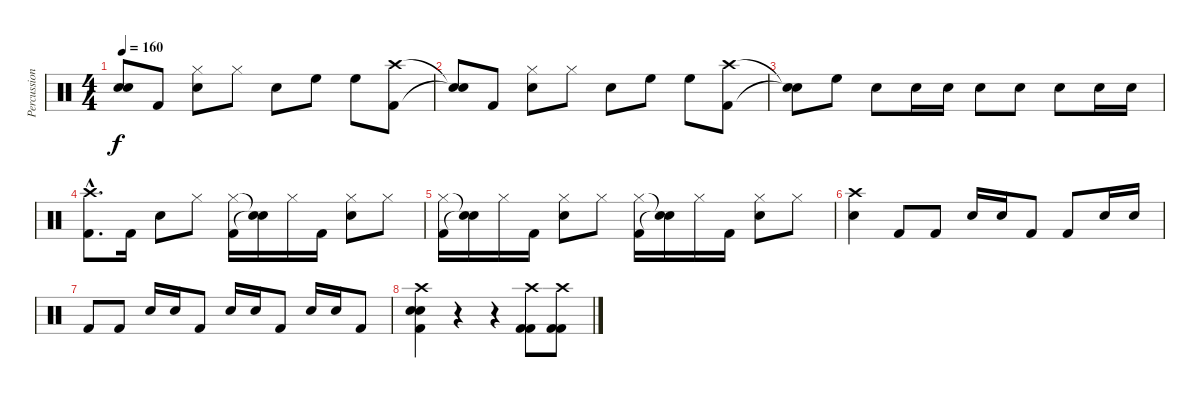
\track ("Percussion" "Percussion") {instrument percussion}
\staff {score}
\articulation defaults
\ts (4 4)
\tempo 160
\clef neutral
\ks c
("Snare (hit)"{t} "Snare (hit)"{t}).8{dy f} "Kick (hit) 2".8 ("Hi-Hat (closed)" "Snare (hit) 2").8 "Hi-Hat (closed)".8 "Snare (hit) 2".8 "High Floor Tom (hit)".8 "High Floor Tom (hit)".8 ("Crash high (hit)" "Kick (hit) 2").8 |
("Snare (hit)"{t} "Snare (hit)"{t}).8 "Kick (hit) 2".8 ("Hi-Hat (closed)" "Snare (hit) 2").8 "Hi-Hat (closed)".8 "Snare (hit) 2".8 "High Floor Tom (hit)".8 "High Floor Tom (hit)".8 ("Crash high (hit)" "Kick (hit) 2").8 |
("Snare (hit)"{t} "Snare (hit)"{t}).8 "High Floor Tom (hit)".8 "Snare (hit) 2".8 "Snare (hit) 2".16 "Snare (hit) 2".16 "Snare (hit) 2".8 "Snare (hit) 2".8 "Snare (hit) 2".8 "Snare (hit) 2".16 "Snare (hit) 2".16 |
("Crash high (hit)"{hac} "Kick (hit) 2"{hac}).8{d} "Kick (hit) 2".16 "Snare (hit) 2".8 "Hi-Hat (closed)".8 ("Hi-Hat (closed)" "Kick (hit) 2").16 ("Snare (hit)"{t} "Snare (hit)"{t}).16 "Hi-Hat (closed)".16 "Kick (hit) 2".16 ("Hi-Hat (closed)" "Snare (hit) 2").8 "Hi-Hat (closed)".8 |
("Hi-Hat (closed)" "Kick (hit) 2").16 ("Snare (hit)"{t} "Snare (hit)"{t}).16 "Hi-Hat (closed)".16 "Kick (hit) 2".16 ("Hi-Hat (closed)" "Snare (hit) 2").8 "Hi-Hat (closed)".8 ("Hi-Hat (closed)" "Kick (hit) 2").16 ("Snare (hit)"{t} "Snare (hit)"{t}).16 "Hi-Hat (closed)".16 "Kick (hit) 2".16 ("Hi-Hat (closed)" "Snare (hit) 2").8 "Hi-Hat (closed)".8 |
("Crash high (hit)" "Snare (hit) 2").4 "Kick (hit) 2".8 "Kick (hit) 2".8 "Snare (hit) 2".16 "Snare (hit) 2".16 "Kick (hit) 2".8 "Kick (hit) 2".8 "Snare (hit) 2".16 "Snare (hit) 2".16 |
"Kick (hit) 2".8 "Kick (hit) 2".8 "Snare (hit) 2".16 "Snare (hit) 2".16 "Kick (hit) 2".8 "Snare (hit) 2".16 "Snare (hit) 2".16 "Kick (hit) 2".8 "Snare (hit) 2".16 "Snare (hit) 2".16 "Kick (hit) 2".8 |
("Crash high (hit)" "Snare (hit) 2" "Kick (hit) 2" "Snare (hit) 2").4 r.4 r.4 ("Crash high (hit)" "Kick (hit) 2" "Kick (hit) 2").8 ("Crash high (hit)" "Kick (hit) 2" "Kick (hit) 2").8
